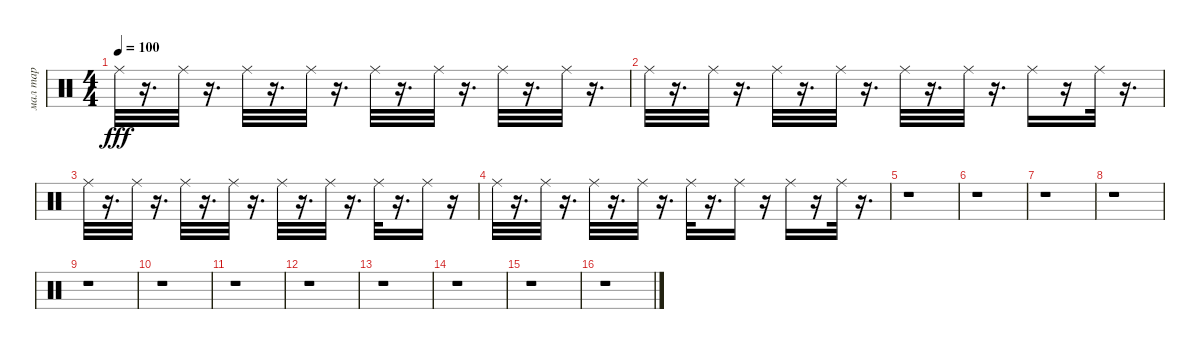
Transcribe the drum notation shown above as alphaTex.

\track ("мал тар" "мал тар") {instrument percussion}
\staff {score}
\articulation defaults
\ts (4 4)
\tempo 100
\clef neutral
\ks c "Ride (middle)".32{dy fff}
r.16{d} "Ride (middle)".32 r.16{d} "Ride (middle)".32 r.16{d} "Ride (middle)".32 r.16{d} "Ride (middle)".32 r.16{d} "Ride (middle)".32 r.16{d} "Ride (middle)".32 r.16{d} "Ride (middle)".32 r.16{d} |
"Ride (middle)".32 r.16{d} "Ride (middle)".32 r.16{d} "Ride (middle)".32 r.16{d} "Ride (middle)".32 r.16{d} "Ride (middle)".32 r.16{d} "Ride (middle)".32 r.16{d} "Ride (middle)".16 r.16 "Ride (middle)".32 r.16{d} |
"Ride (middle)".32 r.16{d} "Ride (middle)".32 r.16{d} "Ride (middle)".32 r.16{d} "Ride (middle)".32 r.16{d} "Ride (middle)".32 r.16{d} "Ride (middle)".32 r.16{d} "Ride (middle)".32 r.16{d} "Ride (middle)".16 r.16 |
"Ride (middle)".32 r.16{d} "Ride (middle)".32 r.16{d} "Ride (middle)".32 r.16{d} "Ride (middle)".32 r.16{d} "Ride (middle)".32 r.16{d} "Ride (middle)".16 r.16 "Ride (middle)".16 r.16 "Ride (middle)".32 r.16{d} |
r.1 |
r.1 |
r.1 |
r.1 |
r.1 |
r.1 |
r.1 |
r.1 |
r.1 |
r.1 |
r.1 |
r.1
